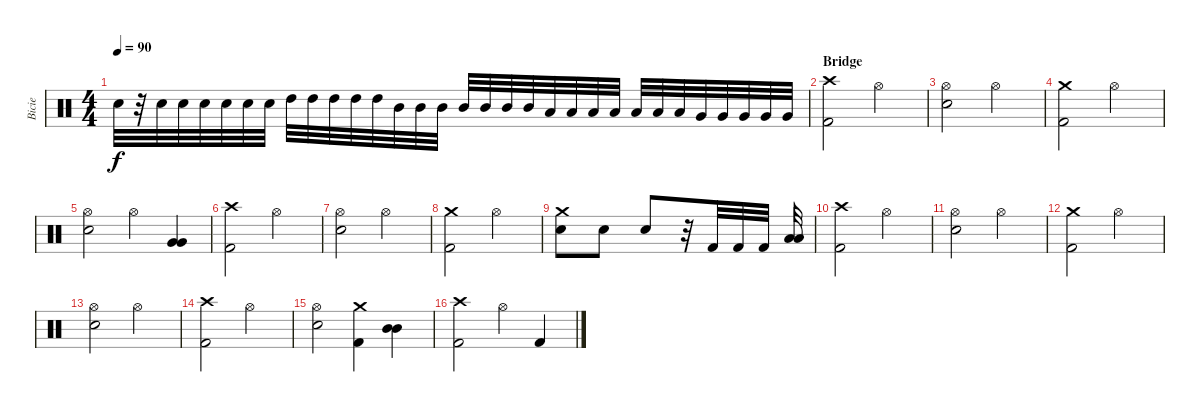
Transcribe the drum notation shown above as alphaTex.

\track ("Bicie" "Bicie") {instrument percussion}
\staff {score}
\articulation defaults
\ts (4 4)
\tempo 90
\clef neutral
\ks c "Electric Snare (hit)".32{dy f}
r.32 "Electric Snare (hit)".32 "Electric Snare (hit)".32 "Electric Snare (hit)".32 "Electric Snare (hit)".32 "Electric Snare (hit)".32 "Electric Snare (hit)".32 "High Tom (hit)".32 "High Tom (hit)".32 "High Tom (hit)".32 "High Tom (hit)".32 "High Tom (hit)".32 "Mid Tom (hit)".32 "Mid Tom (hit)".32 "Mid Tom (hit)".32 "Mid Tom (hit)".32 "Mid Tom (hit)".32 "Mid Tom (hit)".32 "Mid Tom (hit)".32 "Low Tom (hit)".32 "Low Tom (hit)".32 "Low Tom (hit)".32 "Low Tom (hit)".32 "Low Tom (hit)".32 "Low Tom (hit)".32 "Low Tom (hit)".32 "Very Low Tom (hit)".32 "Very Low Tom (hit)".32 "Very Low Tom (hit)".32 "Very Low Tom (hit)".32 "Very Low Tom (hit)".32 |
\section ("" "Bridge")
("Crash high (hit)" "Kick (hit) 2").2 "Hi-Hat (open)".2 |
("Hi-Hat (open)" "Electric Snare (hit)").2 "Hi-Hat (open)".2 |
("Crash medium (hit)" "Kick (hit) 2").2 "Hi-Hat (open)".2 |
("Hi-Hat (open)" "Electric Snare (hit)").2 "Hi-Hat (open)".4 ("Very Low Tom (hit)" "Very Low Tom (hit)").4 |
("Crash high (hit)" "Kick (hit) 2").2 "Hi-Hat (open)".2 |
("Hi-Hat (open)" "Electric Snare (hit)").2 "Hi-Hat (open)".2 |
("Crash medium (hit)" "Kick (hit) 2").2 "Hi-Hat (open)".2 |
("Crash medium (hit)" "Electric Snare (hit)").8 "Snare (hit)".8 "Snare (hit)".8 r.32 "Kick (hit) 2".32 "Kick (hit) 2".32 "Kick (hit) 2".32 ("Low Tom (hit)" "Low Tom (hit)").32 |
("Crash high (hit)" "Kick (hit) 2").2 "Hi-Hat (open)".2 |
("Hi-Hat (open)" "Electric Snare (hit)").2 "Hi-Hat (open)".2 |
("Crash medium (hit)" "Kick (hit) 2").2 "Hi-Hat (open)".2 |
("Hi-Hat (open)" "Electric Snare (hit)").2 "Hi-Hat (open)".2 |
("Crash high (hit)" "Kick (hit) 2").2 "Hi-Hat (open)".2 |
("Hi-Hat (open)" "Electric Snare (hit)").2 ("Crash medium (hit)" "Kick (hit) 2").4 ("Mid Tom (hit)" "Mid Tom (hit)").4 |
("Crash high (hit)" "Kick (hit) 2").2 "Hi-Hat (open)".4 "Kick (hit) 2".4
